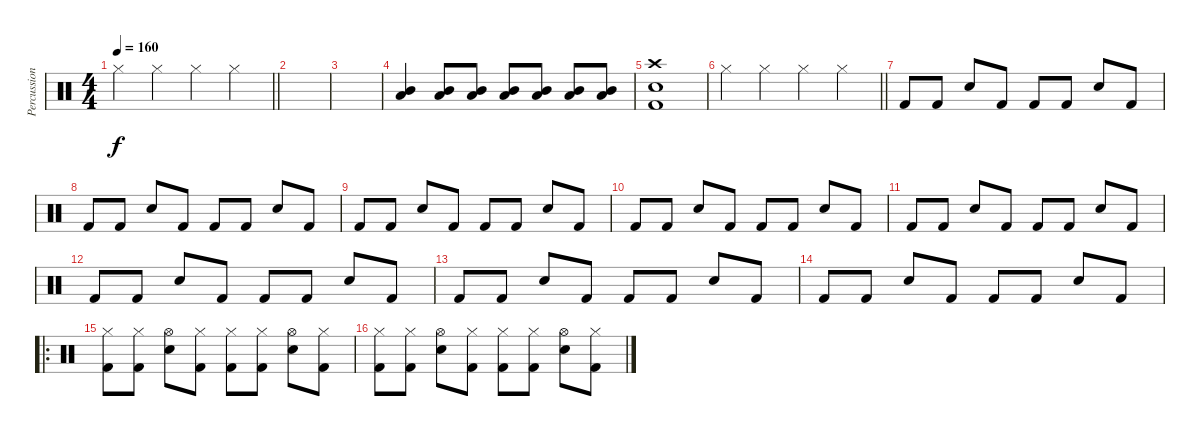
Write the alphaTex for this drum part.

\track ("Percussion" "Percussion") {instrument percussion}
\staff {score}
\articulation defaults
\ts (4 4)
\tempo 160
\clef neutral
\barLineRight lightlight
\ks c "Hi-Hat (closed)".4{dy f} "Hi-Hat (closed)".4 "Hi-Hat (closed)".4 "Hi-Hat (closed)".4
|
|
|
("Mid Tom (hit)" "Low Tom (hit)").4 ("Mid Tom (hit)" "Low Tom (hit)").8 ("Mid Tom (hit)" "Low Tom (hit)").8 ("Mid Tom (hit)" "Low Tom (hit)").8 ("Mid Tom (hit)" "Low Tom (hit)").8 ("Mid Tom (hit)" "Low Tom (hit)").8 ("Mid Tom (hit)" "Low Tom (hit)").8 |
("Crash high (hit)" "Snare (hit) 2" "Kick (hit) 2").1 |
\barLineRight lightlight "Hi-Hat (closed)".4 "Hi-Hat (closed)".4 "Hi-Hat (closed)".4 "Hi-Hat (closed)".4
|
"Kick (hit) 2".8 "Kick (hit) 2".8 "Snare (hit) 2".8 "Kick (hit) 2".8 "Kick (hit) 2".8 "Kick (hit) 2".8 "Snare (hit) 2".8 "Kick (hit) 2".8 |
"Kick (hit) 2".8 "Kick (hit) 2".8 "Snare (hit) 2".8 "Kick (hit) 2".8 "Kick (hit) 2".8 "Kick (hit) 2".8 "Snare (hit) 2".8 "Kick (hit) 2".8 |
"Kick (hit) 2".8 "Kick (hit) 2".8 "Snare (hit) 2".8 "Kick (hit) 2".8 "Kick (hit) 2".8 "Kick (hit) 2".8 "Snare (hit) 2".8 "Kick (hit) 2".8 |
"Kick (hit) 2".8 "Kick (hit) 2".8 "Snare (hit) 2".8 "Kick (hit) 2".8 "Kick (hit) 2".8 "Kick (hit) 2".8 "Snare (hit) 2".8 "Kick (hit) 2".8 |
"Kick (hit) 2".8 "Kick (hit) 2".8 "Snare (hit) 2".8 "Kick (hit) 2".8 "Kick (hit) 2".8 "Kick (hit) 2".8 "Snare (hit) 2".8 "Kick (hit) 2".8 |
"Kick (hit) 2".8 "Kick (hit) 2".8 "Snare (hit) 2".8 "Kick (hit) 2".8 "Kick (hit) 2".8 "Kick (hit) 2".8 "Snare (hit) 2".8 "Kick (hit) 2".8 |
"Kick (hit) 2".8 "Kick (hit) 2".8 "Snare (hit) 2".8 "Kick (hit) 2".8 "Kick (hit) 2".8 "Kick (hit) 2".8 "Snare (hit) 2".8 "Kick (hit) 2".8 |
"Kick (hit) 2".8 "Kick (hit) 2".8 "Snare (hit) 2".8 "Kick (hit) 2".8 "Kick (hit) 2".8 "Kick (hit) 2".8 "Snare (hit) 2".8 "Kick (hit) 2".8 |
\ro
("Hi-Hat (closed)" "Kick (hit) 2").8 ("Hi-Hat (closed)" "Kick (hit) 2").8 ("Hi-Hat (open)" "Snare (hit) 2").8 ("Hi-Hat (closed)" "Kick (hit) 2").8 ("Hi-Hat (closed)" "Kick (hit) 2").8 ("Hi-Hat (closed)" "Kick (hit) 2").8 ("Hi-Hat (open)" "Snare (hit) 2").8 ("Hi-Hat (closed)" "Kick (hit) 2").8 |
("Hi-Hat (closed)" "Kick (hit) 2").8 ("Hi-Hat (closed)" "Kick (hit) 2").8 ("Hi-Hat (open)" "Snare (hit) 2").8 ("Hi-Hat (closed)" "Kick (hit) 2").8 ("Hi-Hat (closed)" "Kick (hit) 2").8 ("Hi-Hat (closed)" "Kick (hit) 2").8 ("Hi-Hat (open)" "Snare (hit) 2").8 ("Hi-Hat (closed)" "Kick (hit) 2").8
